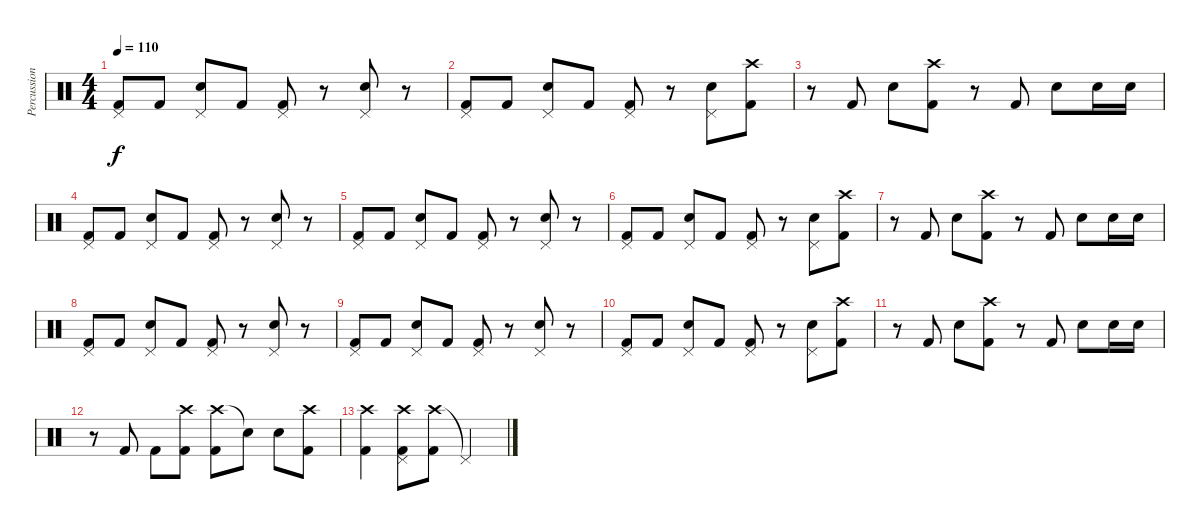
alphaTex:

\track ("Percussion" "Percussion") {instrument percussion}
\staff {score}
\articulation defaults
\ts (4 4)
\tempo 110
\clef neutral
\ks c
("Pedal Hi-Hat (hit)" "Kick (hit) 2").8{dy f} "Kick (hit) 2".8 ("Electric Snare (hit)" "Pedal Hi-Hat (hit)").8 "Kick (hit) 2".8 ("Pedal Hi-Hat (hit)" "Kick (hit) 2").8 r.8 ("Electric Snare (hit)" "Pedal Hi-Hat (hit)").8 r.8 |
("Pedal Hi-Hat (hit)" "Kick (hit) 2").8 "Kick (hit) 2".8 ("Electric Snare (hit)" "Pedal Hi-Hat (hit)").8 "Kick (hit) 2".8 ("Pedal Hi-Hat (hit)" "Kick (hit) 2").8 r.8 ("Electric Snare (hit)" "Pedal Hi-Hat (hit)").8 ("Kick (hit) 2" "Crash high (hit)").8 |
r.8 "Kick (hit) 2".8 "Electric Snare (hit)".8 ("Kick (hit) 2" "Crash high (hit)").8 r.8 "Kick (hit) 2".8 "Electric Snare (hit)".8 "Electric Snare (hit)".16 "Electric Snare (hit)".16 |
("Pedal Hi-Hat (hit)" "Kick (hit) 2").8 "Kick (hit) 2".8 ("Electric Snare (hit)" "Pedal Hi-Hat (hit)").8 "Kick (hit) 2".8 ("Pedal Hi-Hat (hit)" "Kick (hit) 2").8 r.8 ("Electric Snare (hit)" "Pedal Hi-Hat (hit)").8 r.8 |
("Pedal Hi-Hat (hit)" "Kick (hit) 2").8 "Kick (hit) 2".8 ("Electric Snare (hit)" "Pedal Hi-Hat (hit)").8 "Kick (hit) 2".8 ("Pedal Hi-Hat (hit)" "Kick (hit) 2").8 r.8 ("Electric Snare (hit)" "Pedal Hi-Hat (hit)").8 r.8 |
("Pedal Hi-Hat (hit)" "Kick (hit) 2").8 "Kick (hit) 2".8 ("Electric Snare (hit)" "Pedal Hi-Hat (hit)").8 "Kick (hit) 2".8 ("Pedal Hi-Hat (hit)" "Kick (hit) 2").8 r.8 ("Electric Snare (hit)" "Pedal Hi-Hat (hit)").8 ("Kick (hit) 2" "Crash high (hit)").8 |
r.8 "Kick (hit) 2".8 "Electric Snare (hit)".8 ("Kick (hit) 2" "Crash high (hit)").8 r.8 "Kick (hit) 2".8 "Electric Snare (hit)".8 "Electric Snare (hit)".16 "Electric Snare (hit)".16 |
("Pedal Hi-Hat (hit)" "Kick (hit) 2").8 "Kick (hit) 2".8 ("Electric Snare (hit)" "Pedal Hi-Hat (hit)").8 "Kick (hit) 2".8 ("Pedal Hi-Hat (hit)" "Kick (hit) 2").8 r.8 ("Electric Snare (hit)" "Pedal Hi-Hat (hit)").8 r.8 |
("Pedal Hi-Hat (hit)" "Kick (hit) 2").8 "Kick (hit) 2".8 ("Electric Snare (hit)" "Pedal Hi-Hat (hit)").8 "Kick (hit) 2".8 ("Pedal Hi-Hat (hit)" "Kick (hit) 2").8 r.8 ("Electric Snare (hit)" "Pedal Hi-Hat (hit)").8 r.8 |
("Pedal Hi-Hat (hit)" "Kick (hit) 2").8 "Kick (hit) 2".8 ("Electric Snare (hit)" "Pedal Hi-Hat (hit)").8 "Kick (hit) 2".8 ("Pedal Hi-Hat (hit)" "Kick (hit) 2").8 r.8 ("Electric Snare (hit)" "Pedal Hi-Hat (hit)").8 ("Kick (hit) 2" "Crash high (hit)").8 |
r.8 "Kick (hit) 2".8 "Electric Snare (hit)".8 ("Kick (hit) 2" "Crash high (hit)").8 r.8 "Kick (hit) 2".8 "Electric Snare (hit)".8 "Electric Snare (hit)".16 "Electric Snare (hit)".16 |
r.8 "Kick (hit) 2".8 "Kick (hit) 2".8 ("Crash high (hit)" "Kick (hit) 2").8 ("Crash high (hit)" "Kick (hit) 2").8 "Electric Snare (hit)"{t}.8 "Electric Snare (hit)".8 ("Crash high (hit)" "Kick (hit) 2").8 |
("Crash high (hit)" "Kick (hit) 2").4 ("Crash high (hit)" "Pedal Hi-Hat (hit)" "Kick (hit) 2").8 ("Crash high (hit)" "Kick (hit) 2").8 "Pedal Hi-Hat (hit)"{t}.2
